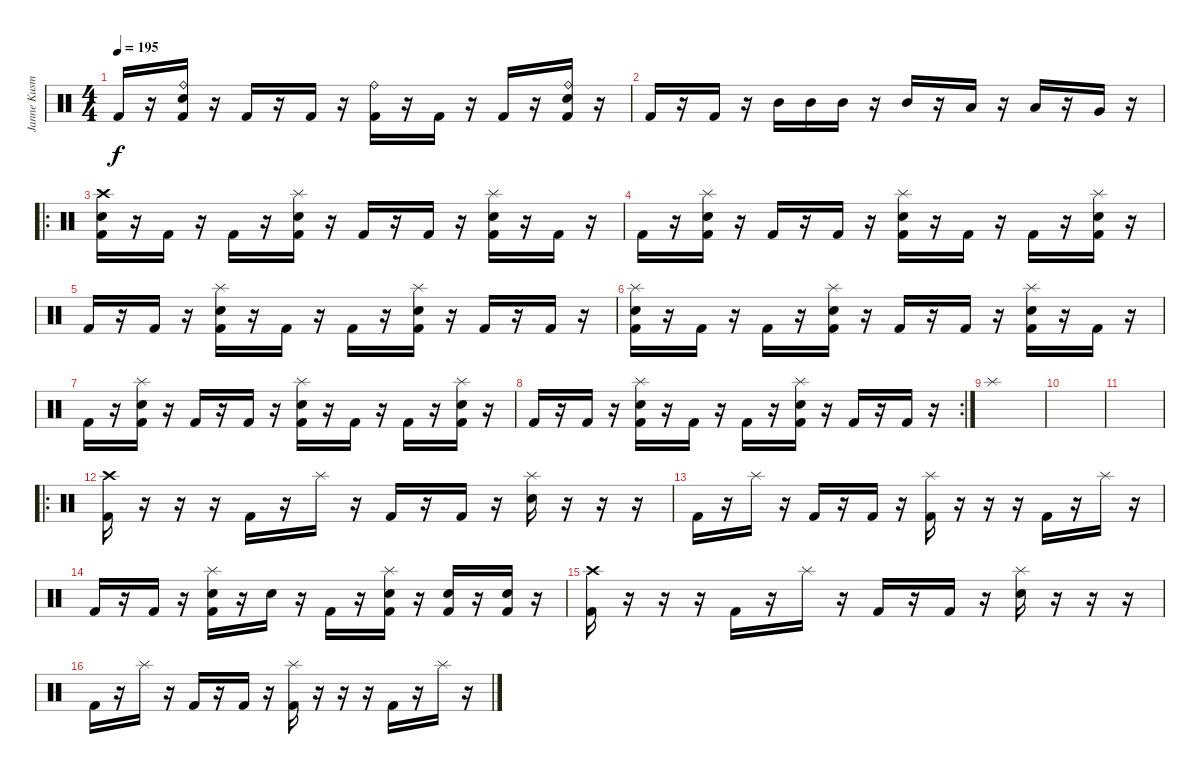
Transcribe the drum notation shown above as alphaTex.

\track ("Janne Kusmin" "Janne Kusm") {instrument percussion}
\staff {score}
\articulation defaults
\ts (4 4)
\tempo 195
\clef neutral
\ks c "Kick (hit) 2".16{dy f}
r.16 ("Ride (bell)" "Snare (hit) 2" "Kick (hit) 2").16 r.16 "Kick (hit) 2".16 r.16 "Kick (hit) 2".16 r.16 ("Ride (bell)" "Kick (hit) 2").16 r.16 "Kick (hit) 2".16 r.16 "Kick (hit) 2".16 r.16 ("Ride (bell)" "Snare (hit) 2" "Kick (hit) 2").16 r.16 |
"Kick (hit) 2".16 r.16 "Kick (hit) 2".16 r.16 "Mid Tom (hit)".16 "Mid Tom (hit)".16 "Mid Tom (hit)".16 r.16 "Mid Tom (hit)".16 r.16 "Low Tom (hit)".16 r.16 "Low Tom (hit)".16 r.16 "Very Low Tom (hit)".16 r.16 |
\ro
("Crash high (hit)" "Snare (hit) 2" "Kick (hit) 2").16 r.16 "Kick (hit) 2".16 r.16 "Kick (hit) 2".16 r.16 ("Splash (hit)" "Snare (hit) 2" "Kick (hit) 2").16 r.16 "Kick (hit) 2".16 r.16 "Kick (hit) 2".16 r.16 ("Splash (hit)" "Snare (hit) 2" "Kick (hit) 2").16 r.16 "Kick (hit) 2".16 r.16 |
"Kick (hit) 2".16 r.16 ("Splash (hit)" "Snare (hit) 2" "Kick (hit) 2").16 r.16 "Kick (hit) 2".16 r.16 "Kick (hit) 2".16 r.16 ("Splash (hit)" "Snare (hit) 2" "Kick (hit) 2").16 r.16 "Kick (hit) 2".16 r.16 "Kick (hit) 2".16 r.16 ("Splash (hit)" "Snare (hit) 2" "Kick (hit) 2").16 r.16 |
"Kick (hit) 2".16 r.16 "Kick (hit) 2".16 r.16 ("Splash (hit)" "Snare (hit) 2" "Kick (hit) 2").16 r.16 "Kick (hit) 2".16 r.16 "Kick (hit) 2".16 r.16 ("Splash (hit)" "Snare (hit) 2" "Kick (hit) 2").16 r.16 "Kick (hit) 2".16 r.16 "Kick (hit) 2".16 r.16 |
("Splash (hit)" "Snare (hit) 2" "Kick (hit) 2").16 r.16 "Kick (hit) 2".16 r.16 "Kick (hit) 2".16 r.16 ("Splash (hit)" "Snare (hit) 2" "Kick (hit) 2").16 r.16 "Kick (hit) 2".16 r.16 "Kick (hit) 2".16 r.16 ("Splash (hit)" "Snare (hit) 2" "Kick (hit) 2").16 r.16 "Kick (hit) 2".16 r.16 |
"Kick (hit) 2".16 r.16 ("Splash (hit)" "Snare (hit) 2" "Kick (hit) 2").16 r.16 "Kick (hit) 2".16 r.16 "Kick (hit) 2".16 r.16 ("Splash (hit)" "Snare (hit) 2" "Kick (hit) 2").16 r.16 "Kick (hit) 2".16 r.16 "Kick (hit) 2".16 r.16 ("Splash (hit)" "Snare (hit) 2" "Kick (hit) 2").16 r.16 |
\rc 2 "Kick (hit) 2".16
r.16 "Kick (hit) 2".16 r.16 ("Splash (hit)" "Snare (hit) 2" "Kick (hit) 2").16 r.16 "Kick (hit) 2".16 r.16 "Kick (hit) 2".16 r.16 ("Splash (hit)" "Snare (hit) 2" "Kick (hit) 2").16 r.16 "Kick (hit) 2".16 r.16 "Kick (hit) 2".16 r.16 |
"Splash (hit)".1 |
|
|
\ro
("Crash high (hit)" "Kick (hit) 2").16 r.16 r.16 r.16 "Kick (hit) 2".16 r.16 "Splash (hit)".16 r.16 "Kick (hit) 2".16 r.16 "Kick (hit) 2".16 r.16 ("Splash (hit)" "Snare (hit) 2").16 r.16 r.16 r.16 |
"Kick (hit) 2".16 r.16 "Splash (hit)".16 r.16 "Kick (hit) 2".16 r.16 "Kick (hit) 2".16 r.16 ("Splash (hit)" "Kick (hit) 2").16 r.16 r.16 r.16 "Kick (hit) 2".16 r.16 "Splash (hit)".16 r.16 |
"Kick (hit) 2".16 r.16 "Kick (hit) 2".16 r.16 ("Splash (hit)" "Snare (hit) 2" "Kick (hit) 2").16 r.16 "Snare (hit) 2".16 r.16 "Kick (hit) 2".16 r.16 ("Splash (hit)" "Snare (hit) 2" "Kick (hit) 2").16 r.16 ("Snare (hit) 2" "Kick (hit) 2").16 r.16 ("Snare (hit) 2" "Kick (hit) 2").16 r.16 |
("Crash high (hit)" "Kick (hit) 2").16 r.16 r.16 r.16 "Kick (hit) 2".16 r.16 "Splash (hit)".16 r.16 "Kick (hit) 2".16 r.16 "Kick (hit) 2".16 r.16 ("Splash (hit)" "Snare (hit) 2").16 r.16 r.16 r.16 |
"Kick (hit) 2".16 r.16 "Splash (hit)".16 r.16 "Kick (hit) 2".16 r.16 "Kick (hit) 2".16 r.16 ("Splash (hit)" "Kick (hit) 2").16 r.16 r.16 r.16 "Kick (hit) 2".16 r.16 "Splash (hit)".16 r.16
